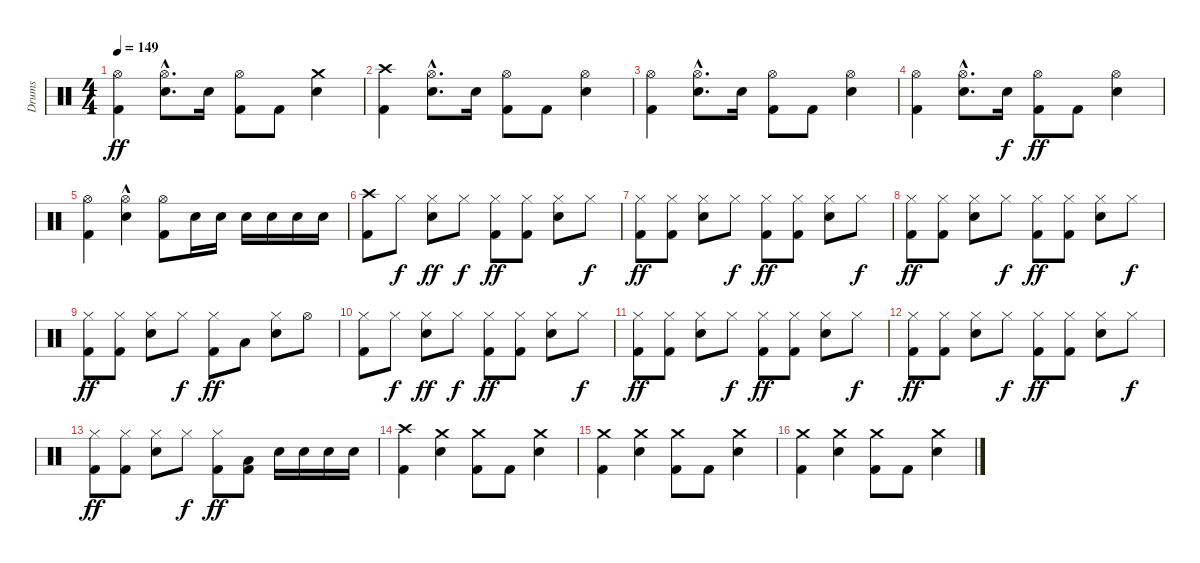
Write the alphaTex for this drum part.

\track ("Drums" "Drums") {instrument percussion}
\staff {score}
\articulation defaults
\ts (4 4)
\tempo 149
\clef neutral
\ks c
("Kick (hit) 2" "Hi-Hat (open)").4{dy ff} ("Hi-Hat (open)" "Electric Snare (hit)"{hac}).8{d} "Electric Snare (hit)".16 ("Hi-Hat (open)" "Kick (hit) 2").8 "Kick (hit) 2".8 ("Electric Snare (hit)" "Crash medium (hit)").4 |
("Crash high (hit)" "Kick (hit) 2").4 ("Hi-Hat (open)" "Electric Snare (hit)"{hac}).8{d} "Electric Snare (hit)".16 ("Hi-Hat (open)" "Kick (hit) 2").8 "Kick (hit) 2".8 ("Hi-Hat (open)" "Electric Snare (hit)").4 |
("Kick (hit) 2" "Hi-Hat (open)").4 ("Hi-Hat (open)" "Electric Snare (hit)"{hac}).8{d} "Electric Snare (hit)".16 ("Hi-Hat (open)" "Kick (hit) 2").8 "Kick (hit) 2".8 ("Hi-Hat (open)" "Electric Snare (hit)").4 |
("Kick (hit) 2" "Hi-Hat (open)").4 ("Hi-Hat (open)" "Electric Snare (hit)"{hac}).8{d} "Electric Snare (hit)".16{dy f} ("Hi-Hat (open)" "Kick (hit) 2").8{dy ff} "Kick (hit) 2".8 ("Hi-Hat (open)" "Electric Snare (hit)").4 |
("Kick (hit) 2" "Hi-Hat (open)").4 ("Hi-Hat (open)" "Electric Snare (hit)"{hac}).4 ("Hi-Hat (open)" "Kick (hit) 2").8 "Electric Snare (hit)".16 "Electric Snare (hit)".16 "Electric Snare (hit)".16 "Electric Snare (hit)".16 "Electric Snare (hit)".16 "Electric Snare (hit)".16 |
("Crash high (hit)" "Kick (hit) 2").8 "Hi-Hat (closed)".8{dy f} ("Hi-Hat (closed)" "Electric Snare (hit)").8{dy ff} "Hi-Hat (closed)".8{dy f} ("Kick (hit) 2" "Hi-Hat (closed)").8{dy ff} ("Hi-Hat (closed)" "Kick (hit) 2").8 ("Hi-Hat (closed)" "Electric Snare (hit)").8 "Hi-Hat (closed)".8{dy f} |
("Kick (hit) 2" "Hi-Hat (closed)").8{dy ff} ("Hi-Hat (closed)" "Kick (hit) 2").8 ("Hi-Hat (closed)" "Electric Snare (hit)").8 "Hi-Hat (closed)".8{dy f} ("Kick (hit) 2" "Hi-Hat (closed)").8{dy ff} ("Hi-Hat (closed)" "Kick (hit) 2").8 ("Hi-Hat (closed)" "Electric Snare (hit)").8 "Hi-Hat (closed)".8{dy f} |
("Kick (hit) 2" "Hi-Hat (closed)").8{dy ff} ("Hi-Hat (closed)" "Kick (hit) 2").8 ("Hi-Hat (closed)" "Electric Snare (hit)").8 "Hi-Hat (closed)".8{dy f} ("Kick (hit) 2" "Hi-Hat (closed)").8{dy ff} ("Hi-Hat (closed)" "Kick (hit) 2").8 ("Hi-Hat (closed)" "Electric Snare (hit)").8 "Hi-Hat (closed)".8{dy f} |
("Kick (hit) 2" "Hi-Hat (closed)").8{dy ff} ("Hi-Hat (closed)" "Kick (hit) 2").8 ("Hi-Hat (closed)" "Electric Snare (hit)").8 "Hi-Hat (closed)".8{dy f} ("Kick (hit) 2" "Hi-Hat (closed)").8{dy ff} "Low Tom (hit)".8 ("Hi-Hat (closed)" "Electric Snare (hit)").8 "Hi-Hat (open)".8 |
("Kick (hit) 2" "Hi-Hat (closed)").8 "Hi-Hat (closed)".8{dy f} ("Hi-Hat (closed)" "Electric Snare (hit)").8{dy ff} "Hi-Hat (closed)".8{dy f} ("Kick (hit) 2" "Hi-Hat (closed)").8{dy ff} ("Hi-Hat (closed)" "Kick (hit) 2").8 ("Hi-Hat (closed)" "Electric Snare (hit)").8 "Hi-Hat (closed)".8{dy f} |
("Kick (hit) 2" "Hi-Hat (closed)").8{dy ff} ("Hi-Hat (closed)" "Kick (hit) 2").8 ("Hi-Hat (closed)" "Electric Snare (hit)").8 "Hi-Hat (closed)".8{dy f} ("Kick (hit) 2" "Hi-Hat (closed)").8{dy ff} ("Hi-Hat (closed)" "Kick (hit) 2").8 ("Hi-Hat (closed)" "Electric Snare (hit)").8 "Hi-Hat (closed)".8{dy f} |
("Kick (hit) 2" "Hi-Hat (closed)").8{dy ff} ("Hi-Hat (closed)" "Kick (hit) 2").8 ("Hi-Hat (closed)" "Electric Snare (hit)").8 "Hi-Hat (closed)".8{dy f} ("Kick (hit) 2" "Hi-Hat (closed)").8{dy ff} ("Hi-Hat (closed)" "Kick (hit) 2").8 ("Hi-Hat (closed)" "Electric Snare (hit)").8 "Hi-Hat (closed)".8{dy f} |
("Kick (hit) 2" "Hi-Hat (closed)").8{dy ff} ("Hi-Hat (closed)" "Kick (hit) 2").8 ("Hi-Hat (closed)" "Electric Snare (hit)").8 "Hi-Hat (closed)".8{dy f} ("Kick (hit) 2" "Hi-Hat (closed)").8{dy ff} ("Kick (hit) 2" "Low Tom (hit)").8 "Electric Snare (hit)".16 "Electric Snare (hit)".16 "Electric Snare (hit)".16 "Electric Snare (hit)".16 |
("Crash high (hit)" "Kick (hit) 2").4 ("Crash medium (hit)" "Electric Snare (hit)").4 ("Crash medium (hit)" "Kick (hit) 2").8 "Kick (hit) 2".8 ("Crash medium (hit)" "Electric Snare (hit)").4 |
("Kick (hit) 2" "Crash medium (hit)").4 ("Crash medium (hit)" "Electric Snare (hit)").4 ("Crash medium (hit)" "Kick (hit) 2").8 "Kick (hit) 2".8 ("Crash medium (hit)" "Electric Snare (hit)").4 |
("Kick (hit) 2" "Crash medium (hit)").4 ("Crash medium (hit)" "Electric Snare (hit)").4 ("Crash medium (hit)" "Kick (hit) 2").8 "Kick (hit) 2".8 ("Crash medium (hit)" "Electric Snare (hit)").4
